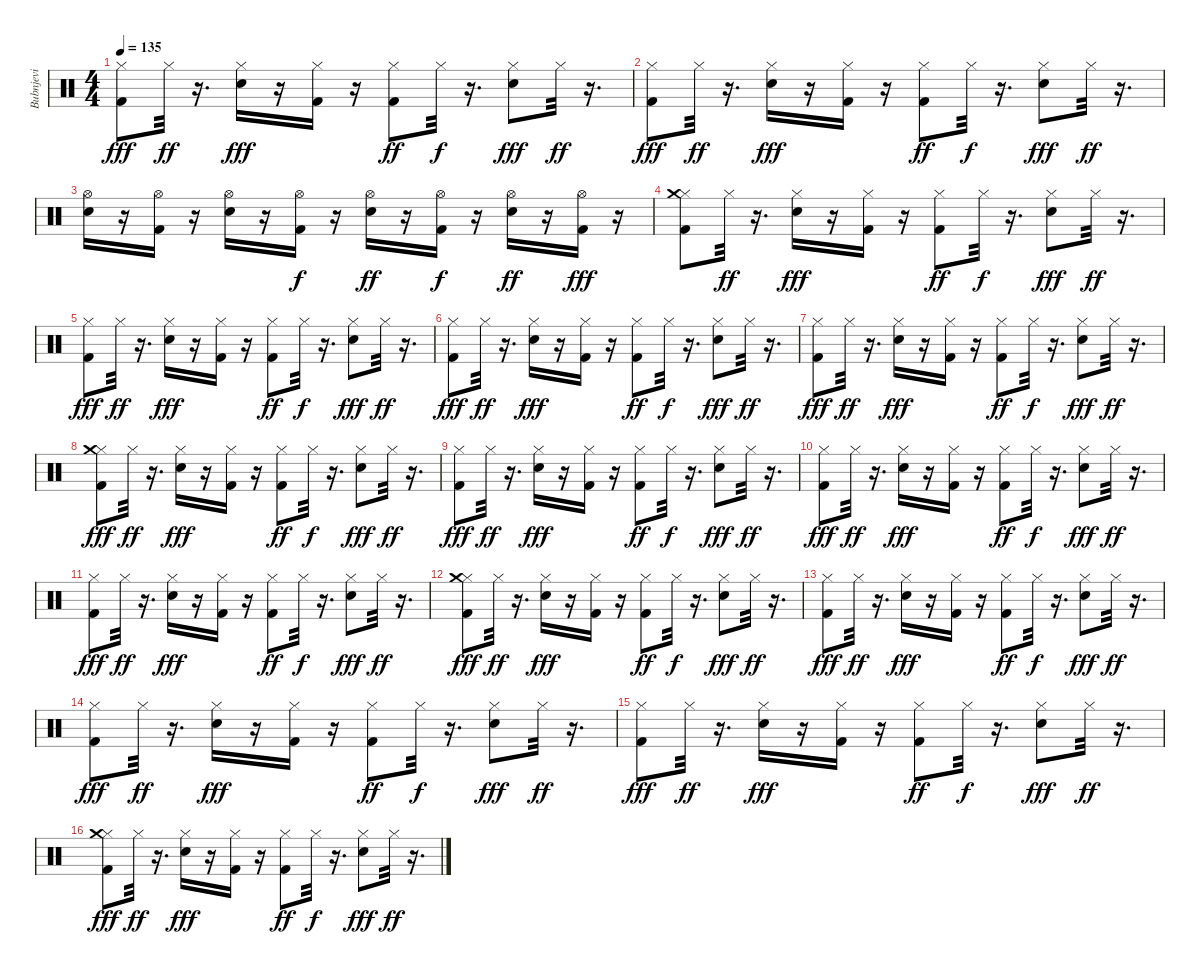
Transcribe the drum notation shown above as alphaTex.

\track ("Bubnjevi" "Bubnjevi") {instrument percussion}
\staff {score}
\articulation defaults
\ts (4 4)
\tempo 135
\clef neutral
\ks c
("Kick (hit) 2" "Hi-Hat (closed)").8{dy fff} "Hi-Hat (closed)".32{dy ff} r.16{d} ("Electric Snare (hit)" "Hi-Hat (closed)").16{dy fff} r.16 ("Kick (hit) 2" "Hi-Hat (closed)").16 r.16 ("Kick (hit) 2" "Hi-Hat (closed)").8{dy ff} "Hi-Hat (closed)".32{dy f} r.16{d} ("Electric Snare (hit)" "Hi-Hat (closed)").8{dy fff} "Hi-Hat (closed)".32{dy ff} r.16{d} |
("Kick (hit) 2" "Hi-Hat (closed)").8{dy fff} "Hi-Hat (closed)".32{dy ff} r.16{d} ("Electric Snare (hit)" "Hi-Hat (closed)").16{dy fff} r.16 ("Kick (hit) 2" "Hi-Hat (closed)").16 r.16 ("Kick (hit) 2" "Hi-Hat (closed)").8{dy ff} "Hi-Hat (closed)".32{dy f} r.16{d} ("Electric Snare (hit)" "Hi-Hat (closed)").8{dy fff} "Hi-Hat (closed)".32{dy ff} r.16{d} |
("Hi-Hat (open)" "Electric Snare (hit)").16 r.16 ("Hi-Hat (open)" "Kick (hit) 2").16 r.16 ("Hi-Hat (open)" "Electric Snare (hit)").16 r.16 ("Hi-Hat (open)" "Kick (hit) 2").16{dy f} r.16 ("Hi-Hat (open)" "Electric Snare (hit)").16{dy ff} r.16 ("Hi-Hat (open)" "Kick (hit) 2").16{dy f} r.16 ("Hi-Hat (open)" "Electric Snare (hit)").16{dy ff} r.16 ("Hi-Hat (open)" "Kick (hit) 2").16{dy fff} r.16 |
("Kick (hit) 2" "Hi-Hat (closed)" "Crash medium (hit)").8 "Hi-Hat (closed)".32{dy ff} r.16{d} ("Electric Snare (hit)" "Hi-Hat (closed)").16{dy fff} r.16 ("Kick (hit) 2" "Hi-Hat (closed)").16 r.16 ("Kick (hit) 2" "Hi-Hat (closed)").8{dy ff} "Hi-Hat (closed)".32{dy f} r.16{d} ("Electric Snare (hit)" "Hi-Hat (closed)").8{dy fff} "Hi-Hat (closed)".32{dy ff} r.16{d} |
("Kick (hit) 2" "Hi-Hat (closed)").8{dy fff} "Hi-Hat (closed)".32{dy ff} r.16{d} ("Electric Snare (hit)" "Hi-Hat (closed)").16{dy fff} r.16 ("Kick (hit) 2" "Hi-Hat (closed)").16 r.16 ("Kick (hit) 2" "Hi-Hat (closed)").8{dy ff} "Hi-Hat (closed)".32{dy f} r.16{d} ("Electric Snare (hit)" "Hi-Hat (closed)").8{dy fff} "Hi-Hat (closed)".32{dy ff} r.16{d} |
("Kick (hit) 2" "Hi-Hat (closed)").8{dy fff} "Hi-Hat (closed)".32{dy ff} r.16{d} ("Electric Snare (hit)" "Hi-Hat (closed)").16{dy fff} r.16 ("Kick (hit) 2" "Hi-Hat (closed)").16 r.16 ("Kick (hit) 2" "Hi-Hat (closed)").8{dy ff} "Hi-Hat (closed)".32{dy f} r.16{d} ("Electric Snare (hit)" "Hi-Hat (closed)").8{dy fff} "Hi-Hat (closed)".32{dy ff} r.16{d} |
("Kick (hit) 2" "Hi-Hat (closed)").8{dy fff} "Hi-Hat (closed)".32{dy ff} r.16{d} ("Electric Snare (hit)" "Hi-Hat (closed)").16{dy fff} r.16 ("Kick (hit) 2" "Hi-Hat (closed)").16 r.16 ("Kick (hit) 2" "Hi-Hat (closed)").8{dy ff} "Hi-Hat (closed)".32{dy f} r.16{d} ("Electric Snare (hit)" "Hi-Hat (closed)").8{dy fff} "Hi-Hat (closed)".32{dy ff} r.16{d} |
("Kick (hit) 2" "Hi-Hat (closed)" "Crash medium (hit)").8{dy fff} "Hi-Hat (closed)".32{dy ff} r.16{d} ("Electric Snare (hit)" "Hi-Hat (closed)").16{dy fff} r.16 ("Kick (hit) 2" "Hi-Hat (closed)").16 r.16 ("Kick (hit) 2" "Hi-Hat (closed)").8{dy ff} "Hi-Hat (closed)".32{dy f} r.16{d} ("Electric Snare (hit)" "Hi-Hat (closed)").8{dy fff} "Hi-Hat (closed)".32{dy ff} r.16{d} |
("Kick (hit) 2" "Hi-Hat (closed)").8{dy fff} "Hi-Hat (closed)".32{dy ff} r.16{d} ("Electric Snare (hit)" "Hi-Hat (closed)").16{dy fff} r.16 ("Kick (hit) 2" "Hi-Hat (closed)").16 r.16 ("Kick (hit) 2" "Hi-Hat (closed)").8{dy ff} "Hi-Hat (closed)".32{dy f} r.16{d} ("Electric Snare (hit)" "Hi-Hat (closed)").8{dy fff} "Hi-Hat (closed)".32{dy ff} r.16{d} |
("Kick (hit) 2" "Hi-Hat (closed)").8{dy fff} "Hi-Hat (closed)".32{dy ff} r.16{d} ("Electric Snare (hit)" "Hi-Hat (closed)").16{dy fff} r.16 ("Kick (hit) 2" "Hi-Hat (closed)").16 r.16 ("Kick (hit) 2" "Hi-Hat (closed)").8{dy ff} "Hi-Hat (closed)".32{dy f} r.16{d} ("Electric Snare (hit)" "Hi-Hat (closed)").8{dy fff} "Hi-Hat (closed)".32{dy ff} r.16{d} |
("Kick (hit) 2" "Hi-Hat (closed)").8{dy fff} "Hi-Hat (closed)".32{dy ff} r.16{d} ("Electric Snare (hit)" "Hi-Hat (closed)").16{dy fff} r.16 ("Kick (hit) 2" "Hi-Hat (closed)").16 r.16 ("Kick (hit) 2" "Hi-Hat (closed)").8{dy ff} "Hi-Hat (closed)".32{dy f} r.16{d} ("Electric Snare (hit)" "Hi-Hat (closed)").8{dy fff} "Hi-Hat (closed)".32{dy ff} r.16{d} |
("Kick (hit) 2" "Hi-Hat (closed)" "Crash medium (hit)").8{dy fff} "Hi-Hat (closed)".32{dy ff} r.16{d} ("Electric Snare (hit)" "Hi-Hat (closed)").16{dy fff} r.16 ("Kick (hit) 2" "Hi-Hat (closed)").16 r.16 ("Kick (hit) 2" "Hi-Hat (closed)").8{dy ff} "Hi-Hat (closed)".32{dy f} r.16{d} ("Electric Snare (hit)" "Hi-Hat (closed)").8{dy fff} "Hi-Hat (closed)".32{dy ff} r.16{d} |
("Kick (hit) 2" "Hi-Hat (closed)").8{dy fff} "Hi-Hat (closed)".32{dy ff} r.16{d} ("Electric Snare (hit)" "Hi-Hat (closed)").16{dy fff} r.16 ("Kick (hit) 2" "Hi-Hat (closed)").16 r.16 ("Kick (hit) 2" "Hi-Hat (closed)").8{dy ff} "Hi-Hat (closed)".32{dy f} r.16{d} ("Electric Snare (hit)" "Hi-Hat (closed)").8{dy fff} "Hi-Hat (closed)".32{dy ff} r.16{d} |
("Kick (hit) 2" "Hi-Hat (closed)").8{dy fff} "Hi-Hat (closed)".32{dy ff} r.16{d} ("Electric Snare (hit)" "Hi-Hat (closed)").16{dy fff} r.16 ("Kick (hit) 2" "Hi-Hat (closed)").16 r.16 ("Kick (hit) 2" "Hi-Hat (closed)").8{dy ff} "Hi-Hat (closed)".32{dy f} r.16{d} ("Electric Snare (hit)" "Hi-Hat (closed)").8{dy fff} "Hi-Hat (closed)".32{dy ff} r.16{d} |
("Kick (hit) 2" "Hi-Hat (closed)").8{dy fff} "Hi-Hat (closed)".32{dy ff} r.16{d} ("Electric Snare (hit)" "Hi-Hat (closed)").16{dy fff} r.16 ("Kick (hit) 2" "Hi-Hat (closed)").16 r.16 ("Kick (hit) 2" "Hi-Hat (closed)").8{dy ff} "Hi-Hat (closed)".32{dy f} r.16{d} ("Electric Snare (hit)" "Hi-Hat (closed)").8{dy fff} "Hi-Hat (closed)".32{dy ff} r.16{d} |
("Kick (hit) 2" "Hi-Hat (closed)" "Crash medium (hit)").8{dy fff} "Hi-Hat (closed)".32{dy ff} r.16{d} ("Electric Snare (hit)" "Hi-Hat (closed)").16{dy fff} r.16 ("Kick (hit) 2" "Hi-Hat (closed)").16 r.16 ("Kick (hit) 2" "Hi-Hat (closed)").8{dy ff} "Hi-Hat (closed)".32{dy f} r.16{d} ("Electric Snare (hit)" "Hi-Hat (closed)").8{dy fff} "Hi-Hat (closed)".32{dy ff} r.16{d}
